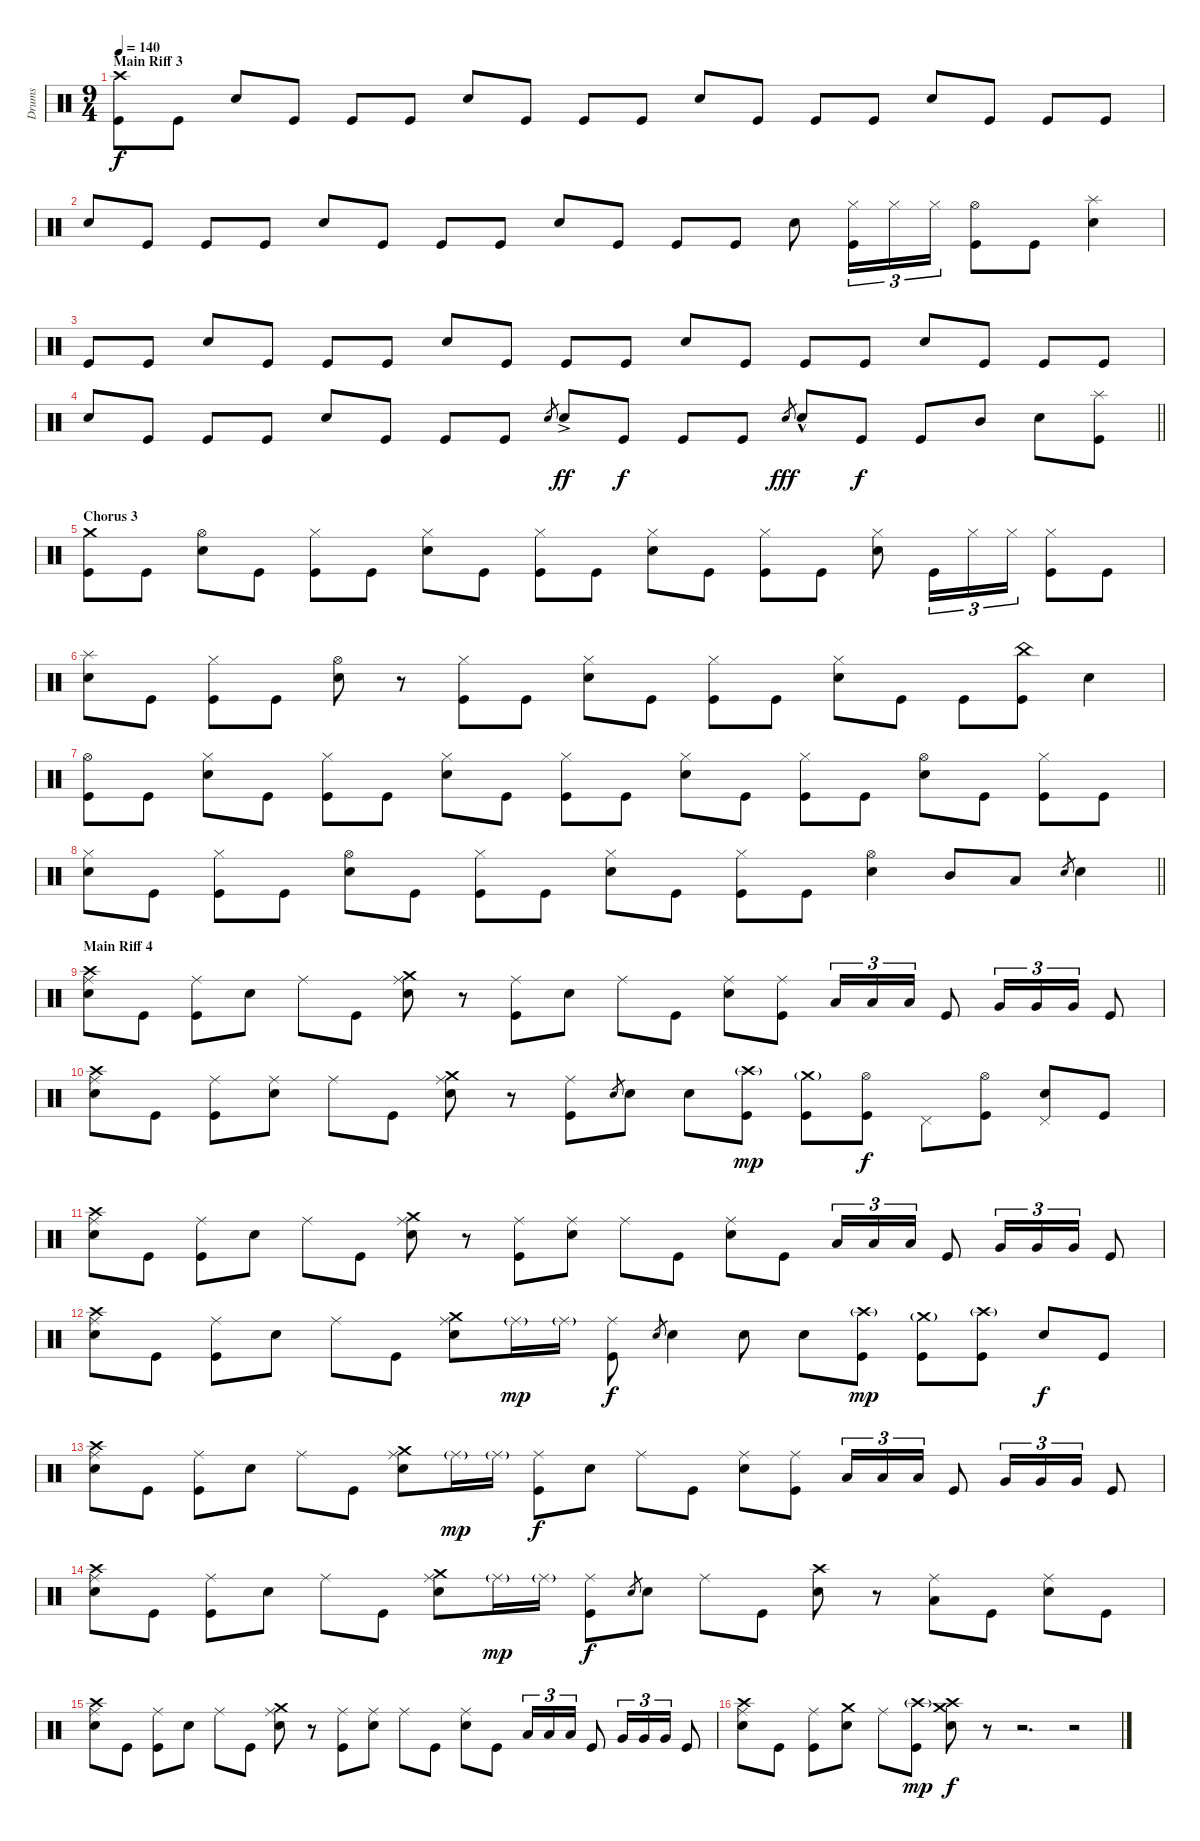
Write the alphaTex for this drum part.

\track ("Drums" "Drums") {instrument percussion}
\staff {score}
\articulation defaults
\ts (9 4)
\section ("" "Main Riff 3")
\tempo 140
\clef neutral
\ks c
("Crash high (hit)" "Kick (hit)").8{dy f} "Kick (hit)".8 "Snare (hit) 2".8 "Kick (hit)".8 "Kick (hit)".8 "Kick (hit)".8 "Snare (hit) 2".8 "Kick (hit)".8 "Kick (hit)".8 "Kick (hit)".8 "Snare (hit) 2".8 "Kick (hit)".8 "Kick (hit)".8 "Kick (hit)".8 "Snare (hit) 2".8 "Kick (hit)".8 "Kick (hit)".8 "Kick (hit)".8 |
"Snare (hit) 2".8 "Kick (hit)".8 "Kick (hit)".8 "Kick (hit)".8 "Snare (hit) 2".8 "Kick (hit)".8 "Kick (hit)".8 "Kick (hit)".8 "Snare (hit) 2".8 "Kick (hit)".8 "Kick (hit)".8 "Kick (hit)".8 "Snare (hit) 2".8 ("Hi-Hat (closed)" "Kick (hit)").16{tu (3 2)} "Hi-Hat (closed)".16{tu (3 2)} "Hi-Hat (closed)".16{tu (3 2)} ("Hi-Hat (open)" "Kick (hit)").8 "Kick (hit)".8 ("Splash (hit)" "Snare (hit) 2").4 |
"Kick (hit)".8 "Kick (hit)".8 "Snare (hit) 2".8 "Kick (hit)".8 "Kick (hit)".8 "Kick (hit)".8 "Snare (hit) 2".8 "Kick (hit)".8 "Kick (hit)".8 "Kick (hit)".8 "Snare (hit) 2".8 "Kick (hit)".8 "Kick (hit)".8 "Kick (hit)".8 "Snare (hit) 2".8 "Kick (hit)".8 "Kick (hit)".8 "Kick (hit)".8 |
\barLineRight lightlight "Snare (hit) 2".8 "Kick (hit)".8 "Kick (hit)".8 "Kick (hit)".8 "Snare (hit) 2".8 "Kick (hit)".8 "Kick (hit)".8 "Kick (hit)".8 "Snare (hit) 2".8{gr} "Snare (hit) 2"{ac}.8{dy ff} "Kick (hit)".8{dy f} "Kick (hit)".8 "Kick (hit)".8 "Snare (hit) 2".8{gr dy fff} "Snare (hit) 2"{hac}.8 "Kick (hit)".8{dy f} "Kick (hit)".8 "Mid Tom (hit)".8 "Snare (hit) 2".8
("Splash (hit)" "Kick (hit)").8 |
\section ("" "Chorus 3")
("Crash medium (hit)" "Kick (hit)").8 "Kick (hit)".8 ("Hi-Hat (open)" "Snare (hit) 2").8 "Kick (hit)".8 ("Hi-Hat (closed)" "Kick (hit)").8 "Kick (hit)".8 ("Hi-Hat (closed)" "Snare (hit) 2").8 "Kick (hit)".8 ("Hi-Hat (closed)" "Kick (hit)").8 "Kick (hit)".8 ("Hi-Hat (closed)" "Snare (hit) 2").8 "Kick (hit)".8 ("Hi-Hat (closed)" "Kick (hit)").8 "Kick (hit)".8 ("Hi-Hat (closed)" "Snare (hit) 2").8 "Kick (hit)".16{tu (3 2)} "Hi-Hat (closed)".16{tu (3 2)} "Hi-Hat (closed)".16{tu (3 2)} ("Hi-Hat (closed)" "Kick (hit)").8 "Kick (hit)".8 |
("Splash (hit)" "Snare (hit) 2").8 "Kick (hit)".8 ("Hi-Hat (closed)" "Kick (hit)").8 "Kick (hit)".8 ("Hi-Hat (open)" "Snare (hit) 2").8 r.8 ("Hi-Hat (closed)" "Kick (hit)").8 "Kick (hit)".8 ("Hi-Hat (closed)" "Snare (hit) 2").8 "Kick (hit)".8 ("Hi-Hat (closed)" "Kick (hit)").8 "Kick (hit)".8 ("Hi-Hat (closed)" "Snare (hit) 2").8 "Kick (hit)".8 "Kick (hit)".8 ("China (hit)" "Kick (hit)").8 "Snare (hit) 2".4 |
("Hi-Hat (open)" "Kick (hit)").8 "Kick (hit)".8 ("Hi-Hat (closed)" "Snare (hit) 2").8 "Kick (hit)".8 ("Hi-Hat (closed)" "Kick (hit)").8 "Kick (hit)".8 ("Hi-Hat (closed)" "Snare (hit) 2").8 "Kick (hit)".8 ("Hi-Hat (closed)" "Kick (hit)").8 "Kick (hit)".8 ("Hi-Hat (closed)" "Snare (hit) 2").8 "Kick (hit)".8 ("Hi-Hat (closed)" "Kick (hit)").8 "Kick (hit)".8 ("Hi-Hat (open)" "Snare (hit) 2").8 "Kick (hit)".8 ("Hi-Hat (closed)" "Kick (hit)").8 "Kick (hit)".8 |
\barLineRight lightlight
("Hi-Hat (closed)" "Snare (hit) 2").8 "Kick (hit)".8 ("Hi-Hat (closed)" "Kick (hit)").8 "Kick (hit)".8 ("Hi-Hat (open)" "Snare (hit) 2").8 "Kick (hit)".8 ("Hi-Hat (closed)" "Kick (hit)").8 "Kick (hit)".8 ("Hi-Hat (closed)" "Snare (hit) 2").8 "Kick (hit)".8 ("Hi-Hat (closed)" "Kick (hit)").8 "Kick (hit)".8 ("Hi-Hat (open)" "Snare (hit) 2").4 "Mid Tom (hit)".8 "Low Tom (hit)".8 "Snare (hit) 2".8{gr} "Snare (hit) 2".4 |
\section ("" "Main Riff 4")
("Ride (middle)" "Crash high (hit)" "Snare (hit) 2").8 "Kick (hit)".8 ("Ride (middle)" "Kick (hit)").8 "Snare (hit) 2".8 "Ride (middle)".8 "Kick (hit)".8 ("Ride (middle)" "Crash medium (hit)" "Snare (hit) 2").8 r.8 ("Ride (middle)" "Kick (hit)").8 "Snare (hit) 2".8 "Ride (middle)".8 "Kick (hit)".8 ("Ride (middle)" "Snare (hit) 2").8 ("Ride (middle)" "Kick (hit)").8 "Low Tom (hit)".16{tu (3 2)} "Low Tom (hit)".16{tu (3 2)} "Low Tom (hit)".16{tu (3 2)} "Kick (hit)".8 "Very Low Tom (hit)".16{tu (3 2)} "Very Low Tom (hit)".16{tu (3 2)} "Very Low Tom (hit)".16{tu (3 2)} "Kick (hit)".8 |
("Ride (middle)" "Crash high (hit)" "Snare (hit) 2").8 "Kick (hit)".8 ("Ride (middle)" "Kick (hit)").8 ("Ride (middle)" "Snare (hit) 2").8 "Ride (middle)".8 "Kick (hit)".8 ("Ride (middle)" "Crash medium (hit)" "Snare (hit) 2").8 r.8 ("Ride (middle)" "Kick (hit)").8 "Snare (hit) 2".8{gr} "Snare (hit) 2".8 "Snare (hit) 2".8 ("Crash high (hit)"{g} "Kick (hit)").8{dy mp} ("Crash medium (hit)"{g} "Kick (hit)").8 ("Hi-Hat (open)" "Kick (hit)").8{dy f} "Pedal Hi-Hat (hit)".8 ("Hi-Hat (open)" "Kick (hit)").8 ("Snare (hit) 2" "Pedal Hi-Hat (hit)").8 "Kick (hit)".8 |
("Ride (middle)" "Crash high (hit)" "Snare (hit) 2").8 "Kick (hit)".8 ("Ride (middle)" "Kick (hit)").8 "Snare (hit) 2".8 "Ride (middle)".8 "Kick (hit)".8 ("Ride (middle)" "Crash medium (hit)" "Snare (hit) 2").8 r.8 ("Ride (middle)" "Kick (hit)").8 ("Ride (middle)" "Snare (hit) 2").8 "Ride (middle)".8 "Kick (hit)".8 ("Ride (middle)" "Snare (hit) 2").8 "Kick (hit)".8 "Low Tom (hit)".16{tu (3 2)} "Low Tom (hit)".16{tu (3 2)} "Low Tom (hit)".16{tu (3 2)} "Kick (hit)".8 "Very Low Tom (hit)".16{tu (3 2)} "Very Low Tom (hit)".16{tu (3 2)} "Very Low Tom (hit)".16{tu (3 2)} "Kick (hit)".8 |
("Ride (middle)" "Crash high (hit)" "Snare (hit) 2").8 "Kick (hit)".8 ("Ride (middle)" "Kick (hit)").8 "Snare (hit) 2".8 "Ride (middle)".8 "Kick (hit)".8 ("Ride (middle)" "Crash medium (hit)" "Snare (hit) 2").8 "Ride (middle)"{g}.16{dy mp} "Ride (middle)"{g}.16 ("Ride (middle)" "Kick (hit)").8{dy f} "Snare (hit) 2".8{gr} "Snare (hit) 2".4 "Snare (hit) 2".8 "Snare (hit) 2".8 ("Crash high (hit)"{g} "Kick (hit)").8{dy mp} ("Crash medium (hit)"{g} "Kick (hit)").8 ("Crash high (hit)"{g} "Kick (hit)").8 "Snare (hit) 2".8{dy f} "Kick (hit)".8 |
("Ride (middle)" "Crash high (hit)" "Snare (hit) 2").8 "Kick (hit)".8 ("Ride (middle)" "Kick (hit)").8 "Snare (hit) 2".8 "Ride (middle)".8 "Kick (hit)".8 ("Ride (middle)" "Crash medium (hit)" "Snare (hit) 2").8 "Ride (middle)"{g}.16{dy mp} "Ride (middle)"{g}.16 ("Ride (middle)" "Kick (hit)").8{dy f} "Snare (hit) 2".8 "Ride (middle)".8 "Kick (hit)".8 ("Ride (middle)" "Snare (hit) 2").8 ("Ride (middle)" "Kick (hit)").8 "Low Tom (hit)".16{tu (3 2)} "Low Tom (hit)".16{tu (3 2)} "Low Tom (hit)".16{tu (3 2)} "Kick (hit)".8 "Very Low Tom (hit)".16{tu (3 2)} "Very Low Tom (hit)".16{tu (3 2)} "Very Low Tom (hit)".16{tu (3 2)} "Kick (hit)".8 |
("Ride (middle)" "Crash high (hit)" "Snare (hit) 2").8 "Kick (hit)".8 ("Ride (middle)" "Kick (hit)").8 "Snare (hit) 2".8 "Ride (middle)".8 "Kick (hit)".8 ("Ride (middle)" "Crash medium (hit)" "Snare (hit) 2").8 "Ride (middle)"{g}.16{dy mp} "Ride (middle)"{g}.16 ("Ride (middle)" "Kick (hit)").8{dy f} "Snare (hit) 2".8{gr} "Snare (hit) 2".8 "Ride (middle)".8 "Kick (hit)".8 ("Crash high (hit)" "Snare (hit) 2").8 r.8 ("Ride (middle)" "Low Floor Tom (hit)").8 "Kick (hit)".8 ("Ride (middle)" "Snare (hit) 2").8 "Kick (hit)".8 |
("Ride (middle)" "Crash high (hit)" "Snare (hit) 2").8 "Kick (hit)".8 ("Ride (middle)" "Kick (hit)").8 "Snare (hit) 2".8 "Ride (middle)".8 "Kick (hit)".8 ("Ride (middle)" "Crash medium (hit)" "Snare (hit) 2").8 r.8 ("Ride (middle)" "Kick (hit)").8 ("Ride (middle)" "Snare (hit) 2").8 "Ride (middle)".8 "Kick (hit)".8 ("Ride (middle)" "Snare (hit) 2").8 "Kick (hit)".8 "Low Tom (hit)".16{tu (3 2)} "Low Tom (hit)".16{tu (3 2)} "Low Tom (hit)".16{tu (3 2)} "Kick (hit)".8 "Very Low Tom (hit)".16{tu (3 2)} "Very Low Tom (hit)".16{tu (3 2)} "Very Low Tom (hit)".16{tu (3 2)} "Kick (hit)".8 |
("Ride (middle)" "Crash high (hit)" "Snare (hit) 2").8 "Kick (hit)".8 ("Ride (middle)" "Kick (hit)").8 ("Crash medium (hit)" "Snare (hit) 2").8 "Ride (middle)".8 ("Crash high (hit)"{g} "Kick (hit)").8{dy mp} ("Crash high (hit)" "Crash medium (hit)" "Snare (hit) 2").8{dy f} r.8 r.2{d} r.2
